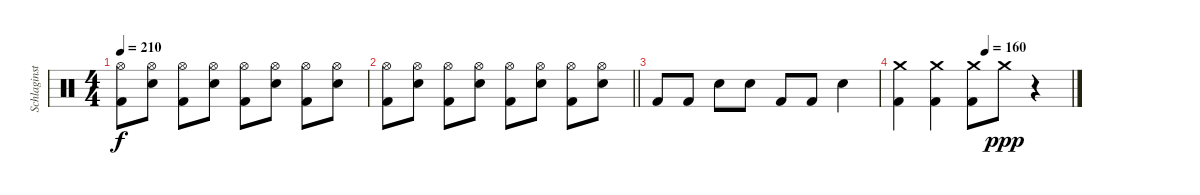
\track ("Schlaginstrumente - Auswahl" "Schlaginst") {instrument percussion}
\staff {score}
\articulation defaults
\ts (4 4)
\tempo 210
\clef neutral
\ks c
("Hi-Hat (open)" "Kick (hit) 2").8{dy f} ("Hi-Hat (open)" "Electric Snare (hit)").8 ("Hi-Hat (open)" "Kick (hit) 2").8 ("Hi-Hat (open)" "Electric Snare (hit)").8 ("Hi-Hat (open)" "Kick (hit) 2").8 ("Hi-Hat (open)" "Electric Snare (hit)").8 ("Hi-Hat (open)" "Kick (hit) 2").8 ("Hi-Hat (open)" "Electric Snare (hit)").8 |
\barLineRight lightlight
("Hi-Hat (open)" "Kick (hit) 2").8 ("Hi-Hat (open)" "Electric Snare (hit)").8 ("Hi-Hat (open)" "Kick (hit) 2").8 ("Hi-Hat (open)" "Electric Snare (hit)").8 ("Hi-Hat (open)" "Kick (hit) 2").8 ("Hi-Hat (open)" "Electric Snare (hit)").8 ("Hi-Hat (open)" "Kick (hit) 2").8 ("Hi-Hat (open)" "Electric Snare (hit)").8 |
"Kick (hit) 2".8 "Kick (hit) 2".8 "Electric Snare (hit)".8 "Electric Snare (hit)".8 "Kick (hit) 2".8 "Kick (hit) 2".8 "Electric Snare (hit)".4 |
\tempo (160 0.5)
("Crash medium (hit)" "Kick (hit) 2").4 ("Crash medium (hit)" "Kick (hit) 2").4 ("Crash medium (hit)" "Kick (hit) 2").8 "Crash medium (hit)".8{dy ppp} r.4
